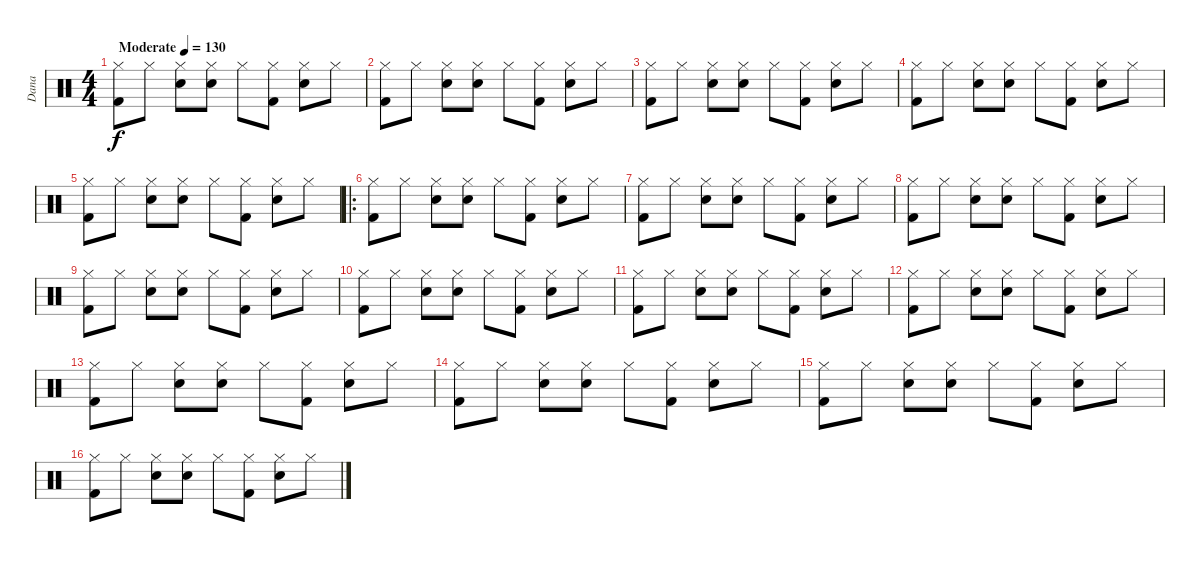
\track ("Dana" "Dana") {instrument percussion}
\staff {score}
\articulation defaults
\ts (4 4)
\tempo (130 "Moderate")
\clef neutral
\ks c
("Hi-Hat (closed)" "Kick (hit) 2").8{dy f} "Hi-Hat (closed)".8 ("Hi-Hat (closed)" "Snare (hit) 2").8 ("Hi-Hat (closed)" "Snare (hit) 2").8 "Hi-Hat (closed)".8 ("Hi-Hat (closed)" "Kick (hit) 2").8 ("Hi-Hat (closed)" "Snare (hit) 2").8 "Hi-Hat (closed)".8 |
("Hi-Hat (closed)" "Kick (hit) 2").8 "Hi-Hat (closed)".8 ("Hi-Hat (closed)" "Snare (hit) 2").8 ("Hi-Hat (closed)" "Snare (hit) 2").8 "Hi-Hat (closed)".8 ("Hi-Hat (closed)" "Kick (hit) 2").8 ("Hi-Hat (closed)" "Snare (hit) 2").8 "Hi-Hat (closed)".8 |
("Hi-Hat (closed)" "Kick (hit) 2").8 "Hi-Hat (closed)".8 ("Hi-Hat (closed)" "Snare (hit) 2").8 ("Hi-Hat (closed)" "Snare (hit) 2").8 "Hi-Hat (closed)".8 ("Hi-Hat (closed)" "Kick (hit) 2").8 ("Hi-Hat (closed)" "Snare (hit) 2").8 "Hi-Hat (closed)".8 |
("Hi-Hat (closed)" "Kick (hit) 2").8 "Hi-Hat (closed)".8 ("Hi-Hat (closed)" "Snare (hit) 2").8 ("Hi-Hat (closed)" "Snare (hit) 2").8 "Hi-Hat (closed)".8 ("Hi-Hat (closed)" "Kick (hit) 2").8 ("Hi-Hat (closed)" "Snare (hit) 2").8 "Hi-Hat (closed)".8 |
("Hi-Hat (closed)" "Kick (hit) 2").8 "Hi-Hat (closed)".8 ("Hi-Hat (closed)" "Snare (hit) 2").8 ("Hi-Hat (closed)" "Snare (hit) 2").8 "Hi-Hat (closed)".8 ("Hi-Hat (closed)" "Kick (hit) 2").8 ("Hi-Hat (closed)" "Snare (hit) 2").8 "Hi-Hat (closed)".8 |
\ro
("Hi-Hat (closed)" "Kick (hit) 2").8 "Hi-Hat (closed)".8 ("Hi-Hat (closed)" "Snare (hit) 2").8 ("Hi-Hat (closed)" "Snare (hit) 2").8 "Hi-Hat (closed)".8 ("Hi-Hat (closed)" "Kick (hit) 2").8 ("Hi-Hat (closed)" "Snare (hit) 2").8 "Hi-Hat (closed)".8 |
("Hi-Hat (closed)" "Kick (hit) 2").8 "Hi-Hat (closed)".8 ("Hi-Hat (closed)" "Snare (hit) 2").8 ("Hi-Hat (closed)" "Snare (hit) 2").8 "Hi-Hat (closed)".8 ("Hi-Hat (closed)" "Kick (hit) 2").8 ("Hi-Hat (closed)" "Snare (hit) 2").8 "Hi-Hat (closed)".8 |
("Hi-Hat (closed)" "Kick (hit) 2").8 "Hi-Hat (closed)".8 ("Hi-Hat (closed)" "Snare (hit) 2").8 ("Hi-Hat (closed)" "Snare (hit) 2").8 "Hi-Hat (closed)".8 ("Hi-Hat (closed)" "Kick (hit) 2").8 ("Hi-Hat (closed)" "Snare (hit) 2").8 "Hi-Hat (closed)".8 |
("Hi-Hat (closed)" "Kick (hit) 2").8 "Hi-Hat (closed)".8 ("Hi-Hat (closed)" "Snare (hit) 2").8 ("Hi-Hat (closed)" "Snare (hit) 2").8 "Hi-Hat (closed)".8 ("Hi-Hat (closed)" "Kick (hit) 2").8 ("Hi-Hat (closed)" "Snare (hit) 2").8 "Hi-Hat (closed)".8 |
("Hi-Hat (closed)" "Kick (hit) 2").8 "Hi-Hat (closed)".8 ("Hi-Hat (closed)" "Snare (hit) 2").8 ("Hi-Hat (closed)" "Snare (hit) 2").8 "Hi-Hat (closed)".8 ("Hi-Hat (closed)" "Kick (hit) 2").8 ("Hi-Hat (closed)" "Snare (hit) 2").8 "Hi-Hat (closed)".8 |
("Hi-Hat (closed)" "Kick (hit) 2").8 "Hi-Hat (closed)".8 ("Hi-Hat (closed)" "Snare (hit) 2").8 ("Hi-Hat (closed)" "Snare (hit) 2").8 "Hi-Hat (closed)".8 ("Hi-Hat (closed)" "Kick (hit) 2").8 ("Hi-Hat (closed)" "Snare (hit) 2").8 "Hi-Hat (closed)".8 |
("Hi-Hat (closed)" "Kick (hit) 2").8 "Hi-Hat (closed)".8 ("Hi-Hat (closed)" "Snare (hit) 2").8 ("Hi-Hat (closed)" "Snare (hit) 2").8 "Hi-Hat (closed)".8 ("Hi-Hat (closed)" "Kick (hit) 2").8 ("Hi-Hat (closed)" "Snare (hit) 2").8 "Hi-Hat (closed)".8 |
("Hi-Hat (closed)" "Kick (hit) 2").8 "Hi-Hat (closed)".8 ("Hi-Hat (closed)" "Snare (hit) 2").8 ("Hi-Hat (closed)" "Snare (hit) 2").8 "Hi-Hat (closed)".8 ("Hi-Hat (closed)" "Kick (hit) 2").8 ("Hi-Hat (closed)" "Snare (hit) 2").8 "Hi-Hat (closed)".8 |
("Hi-Hat (closed)" "Kick (hit) 2").8 "Hi-Hat (closed)".8 ("Hi-Hat (closed)" "Snare (hit) 2").8 ("Hi-Hat (closed)" "Snare (hit) 2").8 "Hi-Hat (closed)".8 ("Hi-Hat (closed)" "Kick (hit) 2").8 ("Hi-Hat (closed)" "Snare (hit) 2").8 "Hi-Hat (closed)".8 |
("Hi-Hat (closed)" "Kick (hit) 2").8 "Hi-Hat (closed)".8 ("Hi-Hat (closed)" "Snare (hit) 2").8 ("Hi-Hat (closed)" "Snare (hit) 2").8 "Hi-Hat (closed)".8 ("Hi-Hat (closed)" "Kick (hit) 2").8 ("Hi-Hat (closed)" "Snare (hit) 2").8 "Hi-Hat (closed)".8 |
("Hi-Hat (closed)" "Kick (hit) 2").8 "Hi-Hat (closed)".8 ("Hi-Hat (closed)" "Snare (hit) 2").8 ("Hi-Hat (closed)" "Snare (hit) 2").8 "Hi-Hat (closed)".8 ("Hi-Hat (closed)" "Kick (hit) 2").8 ("Hi-Hat (closed)" "Snare (hit) 2").8 "Hi-Hat (closed)".8
